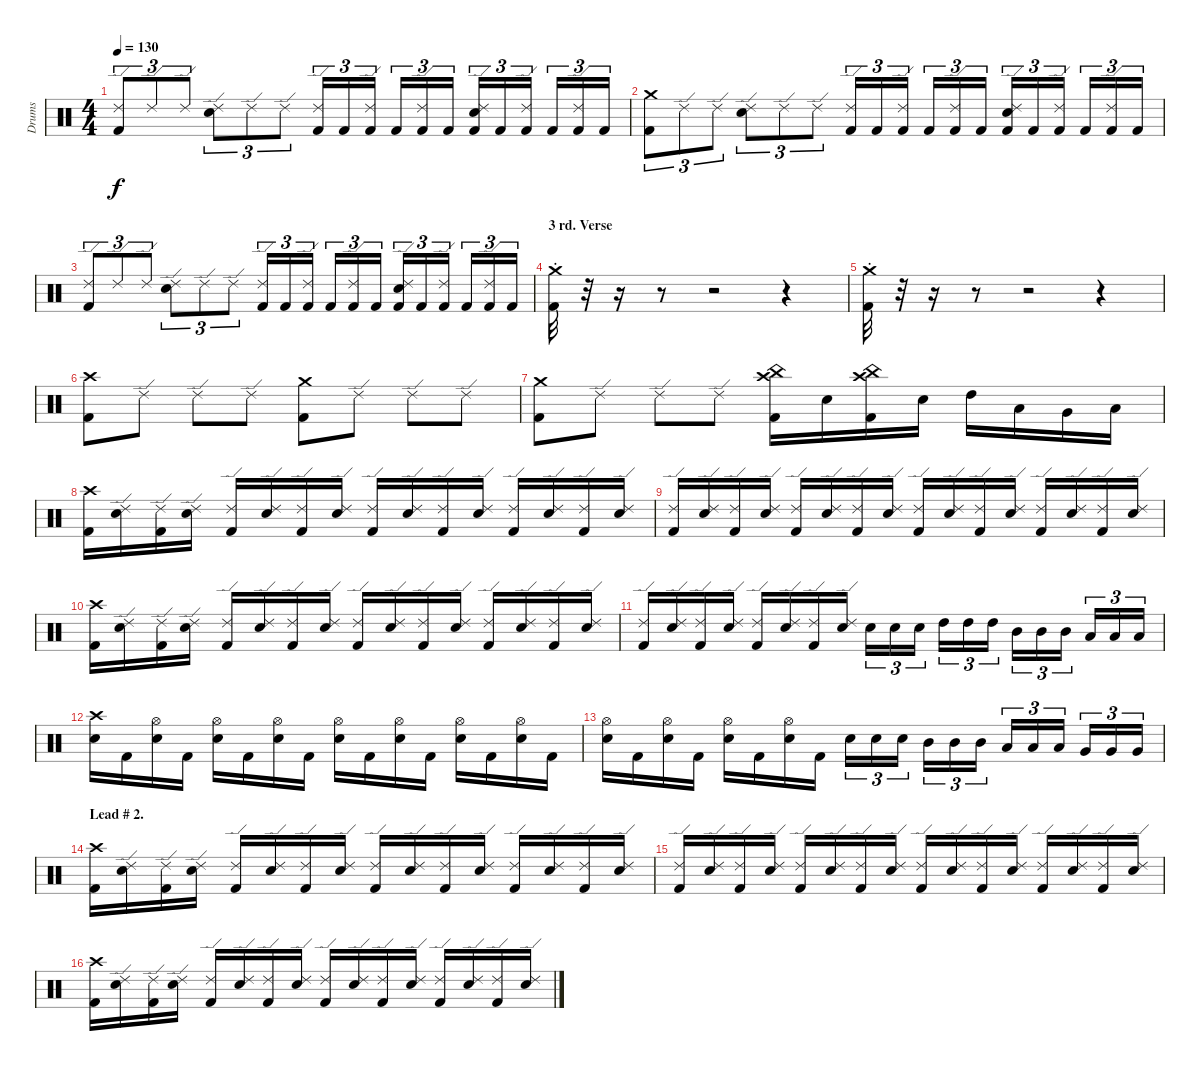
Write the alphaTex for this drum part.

\track ("Drums" "Drums") {instrument percussion}
\staff {score}
\articulation defaults
\ts (4 4)
\tempo 130
\clef neutral
\ks c
("Ride (edge) 2" "Kick (hit) 2").8{tu (3 2) dy f} "Ride (edge) 2".8{tu (3 2)} "Ride (edge) 2".8{tu (3 2)} ("Ride (edge) 2" "Snare (hit) 2").8{tu (3 2)} "Ride (edge) 2".8{tu (3 2)} "Ride (edge) 2".8{tu (3 2)} ("Ride (edge) 2" "Kick (hit) 2").16{tu (3 2)} "Kick (hit) 2".16{tu (3 2)} ("Ride (edge) 2" "Kick (hit) 2").16{tu (3 2)} "Kick (hit) 2".16{tu (3 2)} ("Ride (edge) 2" "Kick (hit) 2").16{tu (3 2)} "Kick (hit) 2".16{tu (3 2)} ("Ride (edge) 2" "Snare (hit) 2" "Kick (hit) 2").16{tu (3 2)} "Kick (hit) 2".16{tu (3 2)} ("Ride (edge) 2" "Kick (hit) 2").16{tu (3 2)} "Kick (hit) 2".16{tu (3 2)} ("Ride (edge) 2" "Kick (hit) 2").16{tu (3 2)} "Kick (hit) 2".16{tu (3 2)} |
("Crash medium (hit)" "Kick (hit) 2").8{tu (3 2)} "Ride (edge) 2".8{tu (3 2)} "Ride (edge) 2".8{tu (3 2)} ("Ride (edge) 2" "Snare (hit) 2").8{tu (3 2)} "Ride (edge) 2".8{tu (3 2)} "Ride (edge) 2".8{tu (3 2)} ("Ride (edge) 2" "Kick (hit) 2").16{tu (3 2)} "Kick (hit) 2".16{tu (3 2)} ("Ride (edge) 2" "Kick (hit) 2").16{tu (3 2)} "Kick (hit) 2".16{tu (3 2)} ("Ride (edge) 2" "Kick (hit) 2").16{tu (3 2)} "Kick (hit) 2".16{tu (3 2)} ("Ride (edge) 2" "Snare (hit) 2" "Kick (hit) 2").16{tu (3 2)} "Kick (hit) 2".16{tu (3 2)} ("Ride (edge) 2" "Kick (hit) 2").16{tu (3 2)} "Kick (hit) 2".16{tu (3 2)} ("Ride (edge) 2" "Kick (hit) 2").16{tu (3 2)} "Kick (hit) 2".16{tu (3 2)} |
("Ride (edge) 2" "Kick (hit) 2").8{tu (3 2)} "Ride (edge) 2".8{tu (3 2)} "Ride (edge) 2".8{tu (3 2)} ("Ride (edge) 2" "Snare (hit) 2").8{tu (3 2)} "Ride (edge) 2".8{tu (3 2)} "Ride (edge) 2".8{tu (3 2)} ("Ride (edge) 2" "Kick (hit) 2").16{tu (3 2)} "Kick (hit) 2".16{tu (3 2)} ("Ride (edge) 2" "Kick (hit) 2").16{tu (3 2)} "Kick (hit) 2".16{tu (3 2)} ("Ride (edge) 2" "Kick (hit) 2").16{tu (3 2)} "Kick (hit) 2".16{tu (3 2)} ("Ride (edge) 2" "Snare (hit) 2" "Kick (hit) 2").16{tu (3 2)} "Kick (hit) 2".16{tu (3 2)} ("Ride (edge) 2" "Kick (hit) 2").16{tu (3 2)} "Kick (hit) 2".16{tu (3 2)} ("Ride (edge) 2" "Kick (hit) 2").16{tu (3 2)} "Kick (hit) 2".16{tu (3 2)} |
\section ("" "3 rd. Verse")
("Crash medium (hit)"{st} "Kick (hit) 2").32 r.32 r.16 r.8 r.2 r.4 |
("Crash medium (hit)"{st} "Kick (hit) 2").32 r.32 r.16 r.8 r.2 r.4 |
("Crash high (hit)" "Kick (hit) 2").8 "Ride (edge) 2".8 "Ride (edge) 2".8 "Ride (edge) 2".8 ("Crash medium (hit)" "Kick (hit) 2").8 "Ride (edge) 2".8 "Ride (edge) 2".8 "Ride (edge) 2".8 |
("Crash medium (hit)" "Kick (hit) 2").8 "Ride (edge) 2".8 "Ride (edge) 2".8 "Ride (edge) 2".8 ("Crash high (hit)" "China (hit)" "Kick (hit) 2").16 "Snare (hit) 2".16 ("Crash high (hit)" "China (hit)" "Kick (hit) 2").16 "Snare (hit) 2".16 "High Tom (hit)".16 "Low Tom (hit)".16 "Very Low Tom (hit)".16 "Low Floor Tom (hit)".16 |
("Crash high (hit)" "Kick (hit) 2").16 ("Ride (edge) 2" "Snare (hit) 2").16 ("Ride (edge) 2" "Kick (hit) 2").16 ("Ride (edge) 2" "Snare (hit) 2").16 ("Ride (edge) 2" "Kick (hit) 2").16 ("Ride (edge) 2" "Snare (hit) 2").16 ("Ride (edge) 2" "Kick (hit) 2").16 ("Ride (edge) 2" "Snare (hit) 2").16 ("Ride (edge) 2" "Kick (hit) 2").16 ("Ride (edge) 2" "Snare (hit) 2").16 ("Ride (edge) 2" "Kick (hit) 2").16 ("Ride (edge) 2" "Snare (hit) 2").16 ("Ride (edge) 2" "Kick (hit) 2").16 ("Ride (edge) 2" "Snare (hit) 2").16 ("Ride (edge) 2" "Kick (hit) 2").16 ("Ride (edge) 2" "Snare (hit) 2").16 |
("Ride (edge) 2" "Kick (hit) 2").16 ("Ride (edge) 2" "Snare (hit) 2").16 ("Ride (edge) 2" "Kick (hit) 2").16 ("Ride (edge) 2" "Snare (hit) 2").16 ("Ride (edge) 2" "Kick (hit) 2").16 ("Ride (edge) 2" "Snare (hit) 2").16 ("Ride (edge) 2" "Kick (hit) 2").16 ("Ride (edge) 2" "Snare (hit) 2").16 ("Ride (edge) 2" "Kick (hit) 2").16 ("Ride (edge) 2" "Snare (hit) 2").16 ("Ride (edge) 2" "Kick (hit) 2").16 ("Ride (edge) 2" "Snare (hit) 2").16 ("Ride (edge) 2" "Kick (hit) 2").16 ("Ride (edge) 2" "Snare (hit) 2").16 ("Ride (edge) 2" "Kick (hit) 2").16 ("Ride (edge) 2" "Snare (hit) 2").16 |
("Crash high (hit)" "Kick (hit) 2").16 ("Ride (edge) 2" "Snare (hit) 2").16 ("Ride (edge) 2" "Kick (hit) 2").16 ("Ride (edge) 2" "Snare (hit) 2").16 ("Ride (edge) 2" "Kick (hit) 2").16 ("Ride (edge) 2" "Snare (hit) 2").16 ("Ride (edge) 2" "Kick (hit) 2").16 ("Ride (edge) 2" "Snare (hit) 2").16 ("Ride (edge) 2" "Kick (hit) 2").16 ("Ride (edge) 2" "Snare (hit) 2").16 ("Ride (edge) 2" "Kick (hit) 2").16 ("Ride (edge) 2" "Snare (hit) 2").16 ("Ride (edge) 2" "Kick (hit) 2").16 ("Ride (edge) 2" "Snare (hit) 2").16 ("Ride (edge) 2" "Kick (hit) 2").16 ("Ride (edge) 2" "Snare (hit) 2").16 |
("Ride (edge) 2" "Kick (hit) 2").16 ("Ride (edge) 2" "Snare (hit) 2").16 ("Ride (edge) 2" "Kick (hit) 2").16 ("Ride (edge) 2" "Snare (hit) 2").16 ("Ride (edge) 2" "Kick (hit) 2").16 ("Ride (edge) 2" "Snare (hit) 2").16 ("Ride (edge) 2" "Kick (hit) 2").16 ("Ride (edge) 2" "Snare (hit) 2").16 "Snare (hit) 2".16{tu (3 2)} "Snare (hit) 2".16{tu (3 2)} "Snare (hit) 2".16{tu (3 2)} "High Tom (hit)".16{tu (3 2)} "High Tom (hit)".16{tu (3 2)} "High Tom (hit)".16{tu (3 2)} "Mid Tom (hit)".16{tu (3 2)} "Mid Tom (hit)".16{tu (3 2)} "Mid Tom (hit)".16{tu (3 2)} "Low Tom (hit)".16{tu (3 2)} "Low Tom (hit)".16{tu (3 2)} "Low Tom (hit)".16{tu (3 2)} |
("Crash high (hit)" "Snare (hit) 2").16 "Kick (hit) 2".16 ("Hi-Hat (open)" "Snare (hit) 2").16 "Kick (hit) 2".16 ("Hi-Hat (open)" "Snare (hit) 2").16 "Kick (hit) 2".16 ("Hi-Hat (open)" "Snare (hit) 2").16 "Kick (hit) 2".16 ("Hi-Hat (open)" "Snare (hit) 2").16 "Kick (hit) 2".16 ("Hi-Hat (open)" "Snare (hit) 2").16 "Kick (hit) 2".16 ("Hi-Hat (open)" "Snare (hit) 2").16 "Kick (hit) 2".16 ("Hi-Hat (open)" "Snare (hit) 2").16 "Kick (hit) 2".16 |
("Hi-Hat (open)" "Snare (hit) 2").16 "Kick (hit) 2".16 ("Hi-Hat (open)" "Snare (hit) 2").16 "Kick (hit) 2".16 ("Hi-Hat (open)" "Snare (hit) 2").16 "Kick (hit) 2".16 ("Hi-Hat (open)" "Snare (hit) 2").16 "Kick (hit) 2".16 "Snare (hit) 2".16{tu (3 2)} "Snare (hit) 2".16{tu (3 2)} "Snare (hit) 2".16{tu (3 2)} "Mid Tom (hit)".16{tu (3 2)} "Mid Tom (hit)".16{tu (3 2)} "Mid Tom (hit)".16{tu (3 2)} "Low Tom (hit)".16{tu (3 2)} "Low Tom (hit)".16{tu (3 2)} "Low Tom (hit)".16{tu (3 2)} "Very Low Tom (hit)".16{tu (3 2)} "Very Low Tom (hit)".16{tu (3 2)} "Very Low Tom (hit)".16{tu (3 2)} |
\section ("" "Lead # 2.")
("Crash high (hit)" "Kick (hit) 2").16 ("Ride (edge) 2" "Snare (hit) 2").16 ("Ride (edge) 2" "Kick (hit) 2").16 ("Ride (edge) 2" "Snare (hit) 2").16 ("Ride (edge) 2" "Kick (hit) 2").16 ("Ride (edge) 2" "Snare (hit) 2").16 ("Ride (edge) 2" "Kick (hit) 2").16 ("Ride (edge) 2" "Snare (hit) 2").16 ("Ride (edge) 2" "Kick (hit) 2").16 ("Ride (edge) 2" "Snare (hit) 2").16 ("Ride (edge) 2" "Kick (hit) 2").16 ("Ride (edge) 2" "Snare (hit) 2").16 ("Ride (edge) 2" "Kick (hit) 2").16 ("Ride (edge) 2" "Snare (hit) 2").16 ("Ride (edge) 2" "Kick (hit) 2").16 ("Ride (edge) 2" "Snare (hit) 2").16 |
("Ride (edge) 2" "Kick (hit) 2").16 ("Ride (edge) 2" "Snare (hit) 2").16 ("Ride (edge) 2" "Kick (hit) 2").16 ("Ride (edge) 2" "Snare (hit) 2").16 ("Ride (edge) 2" "Kick (hit) 2").16 ("Ride (edge) 2" "Snare (hit) 2").16 ("Ride (edge) 2" "Kick (hit) 2").16 ("Ride (edge) 2" "Snare (hit) 2").16 ("Ride (edge) 2" "Kick (hit) 2").16 ("Ride (edge) 2" "Snare (hit) 2").16 ("Ride (edge) 2" "Kick (hit) 2").16 ("Ride (edge) 2" "Snare (hit) 2").16 ("Ride (edge) 2" "Kick (hit) 2").16 ("Ride (edge) 2" "Snare (hit) 2").16 ("Ride (edge) 2" "Kick (hit) 2").16 ("Ride (edge) 2" "Snare (hit) 2").16 |
("Crash high (hit)" "Kick (hit) 2").16 ("Ride (edge) 2" "Snare (hit) 2").16 ("Ride (edge) 2" "Kick (hit) 2").16 ("Ride (edge) 2" "Snare (hit) 2").16 ("Ride (edge) 2" "Kick (hit) 2").16 ("Ride (edge) 2" "Snare (hit) 2").16 ("Ride (edge) 2" "Kick (hit) 2").16 ("Ride (edge) 2" "Snare (hit) 2").16 ("Ride (edge) 2" "Kick (hit) 2").16 ("Ride (edge) 2" "Snare (hit) 2").16 ("Ride (edge) 2" "Kick (hit) 2").16 ("Ride (edge) 2" "Snare (hit) 2").16 ("Ride (edge) 2" "Kick (hit) 2").16 ("Ride (edge) 2" "Snare (hit) 2").16 ("Ride (edge) 2" "Kick (hit) 2").16 ("Ride (edge) 2" "Snare (hit) 2").16
